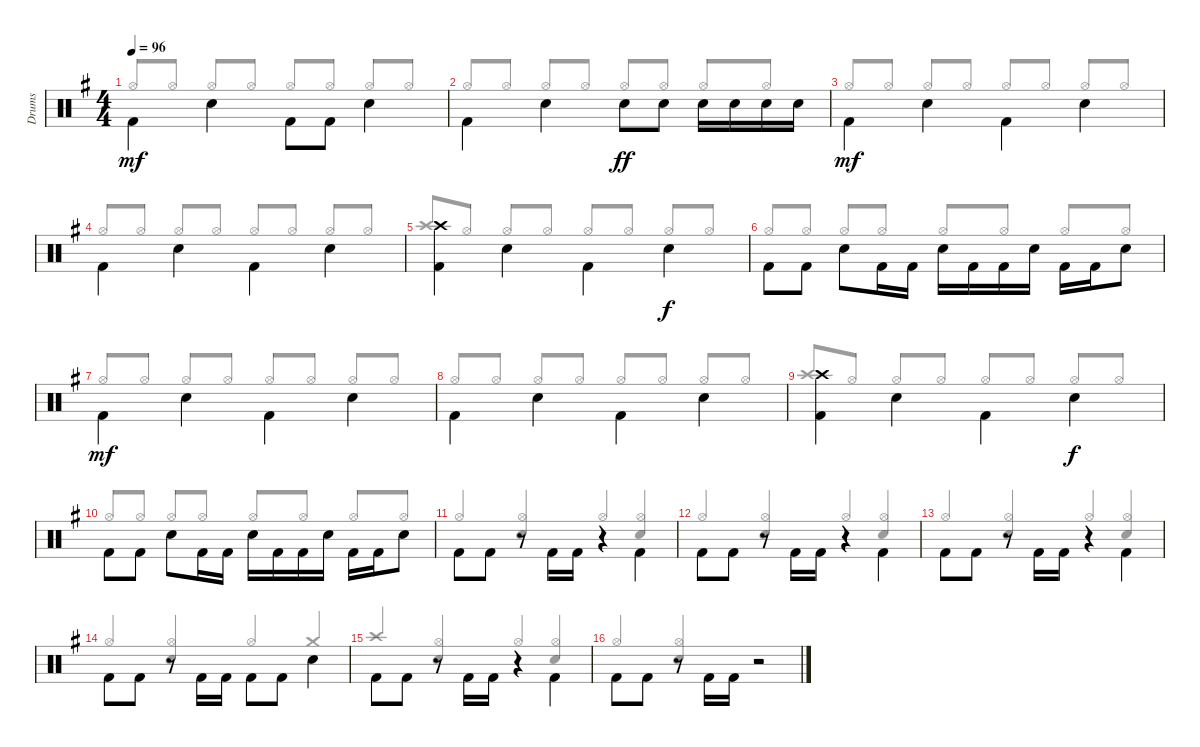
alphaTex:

\track ("Drums" "Drums") {instrument percussion}
\staff {score}
\articulation defaults
\voice
\ts (4 4)
\tempo 96
\clef neutral
\ks g "Kick (hit) 2".4{dy mf beam Down} "Snare (hit) 2".4{beam Down} "Kick (hit) 2".8{beam Down} "Kick (hit) 2".8{beam Down} "Snare (hit) 2".4{beam Down}
|
"Kick (hit) 2".4{beam Down} "Snare (hit) 2".4{beam Down} "Snare (hit) 2".8{dy ff beam Down} "Snare (hit) 2".8{beam Down} "Snare (hit) 2".16{beam Down} "Snare (hit) 2".16{beam Down} "Snare (hit) 2".16{beam Down} "Snare (hit) 2".16{beam Down} |
"Kick (hit) 2".4{dy mf beam Down} "Snare (hit) 2".4{beam Down} "Kick (hit) 2".4{beam Down} "Snare (hit) 2".4{beam Down} |
"Kick (hit) 2".4{beam Down} "Snare (hit) 2".4{beam Down} "Kick (hit) 2".4{beam Down} "Snare (hit) 2".4{beam Down} |
("Crash high (hit)" "Kick (hit) 2").4{beam Down} "Snare (hit) 2".4{beam Down} "Kick (hit) 2".4{beam Down} "Snare (hit) 2".4{dy f beam Down} |
"Kick (hit) 2".8{beam Down} "Kick (hit) 2".8{beam Down} "Snare (hit) 2".8{beam Down} "Kick (hit) 2".16{beam Down} "Kick (hit) 2".16{beam Down} "Snare (hit) 2".16{beam Down} "Kick (hit) 2".16{beam Down} "Kick (hit) 2".16{beam Down} "Snare (hit) 2".16{beam Down} "Kick (hit) 2".16{beam Down} "Kick (hit) 2".16{beam Down} "Snare (hit) 2".8{beam Down} |
"Kick (hit) 2".4{dy mf beam Down} "Snare (hit) 2".4{beam Down} "Kick (hit) 2".4{beam Down} "Snare (hit) 2".4{beam Down} |
"Kick (hit) 2".4{beam Down} "Snare (hit) 2".4{beam Down} "Kick (hit) 2".4{beam Down} "Snare (hit) 2".4{beam Down} |
("Crash high (hit)" "Kick (hit) 2").4{beam Down} "Snare (hit) 2".4{beam Down} "Kick (hit) 2".4{beam Down} "Snare (hit) 2".4{dy f beam Down} |
"Kick (hit) 2".8{beam Down} "Kick (hit) 2".8{beam Down} "Snare (hit) 2".8{beam Down} "Kick (hit) 2".16{beam Down} "Kick (hit) 2".16{beam Down} "Snare (hit) 2".16{beam Down} "Kick (hit) 2".16{beam Down} "Kick (hit) 2".16{beam Down} "Snare (hit) 2".16{beam Down} "Kick (hit) 2".16{beam Down} "Kick (hit) 2".16{beam Down} "Snare (hit) 2".8{beam Down} |
"Kick (hit) 2".8{beam Down} "Kick (hit) 2".8{beam Down} r.8 "Kick (hit) 2".16{beam Down} "Kick (hit) 2".16{beam Down} r.4 "Kick (hit) 2".4{beam Down} |
"Kick (hit) 2".8{beam Down} "Kick (hit) 2".8{beam Down} r.8 "Kick (hit) 2".16{beam Down} "Kick (hit) 2".16{beam Down} r.4 "Kick (hit) 2".4{beam Down} |
"Kick (hit) 2".8{beam Down} "Kick (hit) 2".8{beam Down} r.8 "Kick (hit) 2".16{beam Down} "Kick (hit) 2".16{beam Down} r.4 "Kick (hit) 2".4{beam Down} |
"Kick (hit) 2".8{beam Down} "Kick (hit) 2".8{beam Down} r.8 "Kick (hit) 2".16{beam Down} "Kick (hit) 2".16{beam Down} "Kick (hit) 2".8{beam Down} "Kick (hit) 2".8{beam Down} "Snare (hit) 2".4{beam Down} |
"Kick (hit) 2".8{beam Down} "Kick (hit) 2".8{beam Down} r.8 "Kick (hit) 2".16{beam Down} "Kick (hit) 2".16{beam Down} r.4 "Kick (hit) 2".4{beam Down} |
"Kick (hit) 2".8{beam Down} "Kick (hit) 2".8{beam Down} r.8 "Kick (hit) 2".16{beam Down} "Kick (hit) 2".16{beam Down} r.2
\voice
\clef neutral
\ottava regular
\simile none
\ks g "Hi-Hat (open)".8{dy mf beam Up} "Hi-Hat (open)".8{beam Up} "Hi-Hat (open)".8{beam Up} "Hi-Hat (open)".8{beam Up} "Hi-Hat (open)".8{beam Up} "Hi-Hat (open)".8{beam Up} "Hi-Hat (open)".8{beam Up} "Hi-Hat (open)".8{beam Up}
|
"Hi-Hat (open)".8{beam Up} "Hi-Hat (open)".8{beam Up} "Hi-Hat (open)".8{beam Up} "Hi-Hat (open)".8{beam Up} "Hi-Hat (open)".8{beam Up} "Hi-Hat (open)".8{beam Up} "Hi-Hat (open)".8{beam Up} "Hi-Hat (open)".8{beam Up} |
"Hi-Hat (open)".8{beam Up} "Hi-Hat (open)".8{beam Up} "Hi-Hat (open)".8{beam Up} "Hi-Hat (open)".8{beam Up} "Hi-Hat (open)".8{beam Up} "Hi-Hat (open)".8{beam Up} "Hi-Hat (open)".8{beam Up} "Hi-Hat (open)".8{beam Up} |
"Hi-Hat (open)".8{beam Up} "Hi-Hat (open)".8{beam Up} "Hi-Hat (open)".8{beam Up} "Hi-Hat (open)".8{beam Up} "Hi-Hat (open)".8{beam Up} "Hi-Hat (open)".8{beam Up} "Hi-Hat (open)".8{beam Up} "Hi-Hat (open)".8{beam Up} |
"Crash high (hit)".8{beam Up} "Hi-Hat (open)".8{beam Up} "Hi-Hat (open)".8{beam Up} "Hi-Hat (open)".8{beam Up} "Hi-Hat (open)".8{beam Up} "Hi-Hat (open)".8{beam Up} "Hi-Hat (open)".8{beam Up} "Hi-Hat (open)".8{beam Up} |
"Hi-Hat (open)".8{beam Up} "Hi-Hat (open)".8{beam Up} "Hi-Hat (open)".8{beam Up} "Hi-Hat (open)".8{beam Up} "Hi-Hat (open)".8{beam Up} "Hi-Hat (open)".8{beam Up} "Hi-Hat (open)".8{beam Up} "Hi-Hat (open)".8{beam Up} |
"Hi-Hat (open)".8{beam Up} "Hi-Hat (open)".8{beam Up} "Hi-Hat (open)".8{beam Up} "Hi-Hat (open)".8{beam Up} "Hi-Hat (open)".8{beam Up} "Hi-Hat (open)".8{beam Up} "Hi-Hat (open)".8{beam Up} "Hi-Hat (open)".8{beam Up} |
"Hi-Hat (open)".8{beam Up} "Hi-Hat (open)".8{beam Up} "Hi-Hat (open)".8{beam Up} "Hi-Hat (open)".8{beam Up} "Hi-Hat (open)".8{beam Up} "Hi-Hat (open)".8{beam Up} "Hi-Hat (open)".8{beam Up} "Hi-Hat (open)".8{beam Up} |
"Crash high (hit)".8{beam Up} "Hi-Hat (open)".8{beam Up} "Hi-Hat (open)".8{beam Up} "Hi-Hat (open)".8{beam Up} "Hi-Hat (open)".8{beam Up} "Hi-Hat (open)".8{beam Up} "Hi-Hat (open)".8{beam Up} "Hi-Hat (open)".8{beam Up} |
"Hi-Hat (open)".8{beam Up} "Hi-Hat (open)".8{beam Up} "Hi-Hat (open)".8{beam Up} "Hi-Hat (open)".8{beam Up} "Hi-Hat (open)".8{beam Up} "Hi-Hat (open)".8{beam Up} "Hi-Hat (open)".8{beam Up} "Hi-Hat (open)".8{beam Up} |
"Hi-Hat (open)".4{beam Up} ("Hi-Hat (open)" "Snare (hit) 2").4{beam Up} "Hi-Hat (open)".4{beam Up} ("Hi-Hat (open)" "Snare (hit) 2").4{beam Up} |
"Hi-Hat (open)".4{beam Up} ("Hi-Hat (open)" "Snare (hit) 2").4{beam Up} "Hi-Hat (open)".4{beam Up} ("Hi-Hat (open)" "Snare (hit) 2").4{beam Up} |
"Hi-Hat (open)".4{beam Up} ("Hi-Hat (open)" "Snare (hit) 2").4{beam Up} "Hi-Hat (open)".4{beam Up} ("Hi-Hat (open)" "Snare (hit) 2").4{beam Up} |
"Hi-Hat (open)".4{beam Up} ("Hi-Hat (open)" "Snare (hit) 2").4{beam Up} "Hi-Hat (open)".4{beam Up} "Crash medium (hit)".4{beam Up} |
"Crash high (hit)".4{beam Up} ("Hi-Hat (open)" "Snare (hit) 2").4{beam Up} "Hi-Hat (open)".4{beam Up} ("Hi-Hat (open)" "Snare (hit) 2").4{beam Up} |
"Hi-Hat (open)".4{beam Up} ("Hi-Hat (open)" "Snare (hit) 2").4{beam Up} r.2
